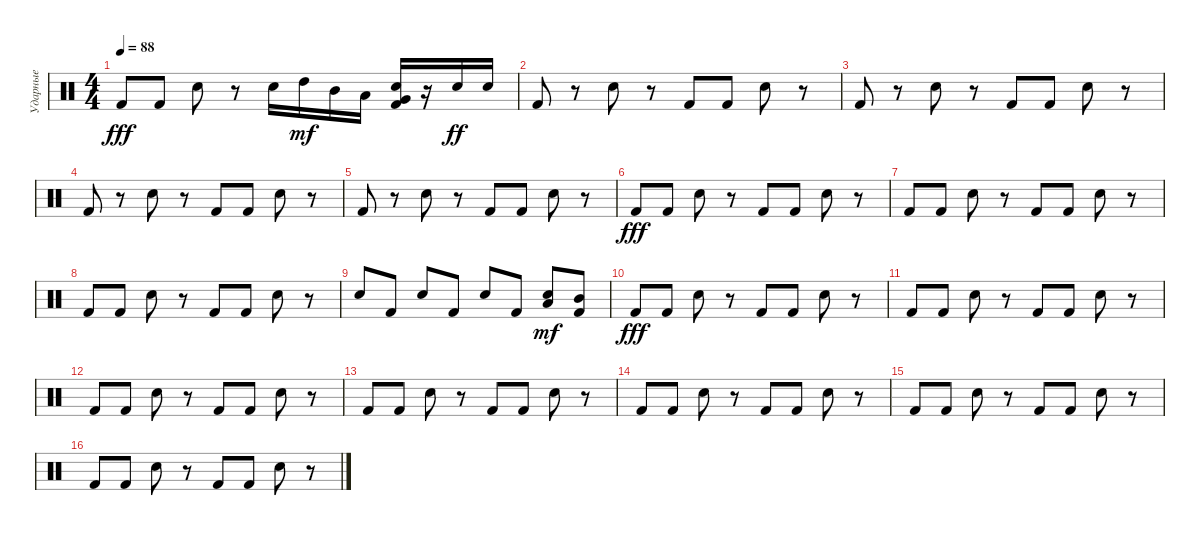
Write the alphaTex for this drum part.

\track ("Ударные" "Ударные") {instrument percussion}
\staff {score}
\articulation defaults
\ts (4 4)
\tempo 88
\clef neutral
\ks c "Kick (hit) 2".8{dy fff} "Kick (hit) 2".8 "Electric Snare (hit)".8
r.8 "Electric Snare (hit)".16 "High Tom (hit)".16{dy mf} "Mid Tom (hit)".16 "Low Tom (hit)".16 ("Very Low Tom (hit)" "Electric Snare (hit)" "Kick (hit) 2").16 r.16 "Electric Snare (hit)".16{dy ff} "Electric Snare (hit)".16 |
"Kick (hit) 2".8 r.8 "Electric Snare (hit)".8 r.8 "Kick (hit) 2".8 "Kick (hit) 2".8 "Electric Snare (hit)".8 r.8 |
"Kick (hit) 2".8 r.8 "Electric Snare (hit)".8 r.8 "Kick (hit) 2".8 "Kick (hit) 2".8 "Electric Snare (hit)".8 r.8 |
"Kick (hit) 2".8 r.8 "Electric Snare (hit)".8 r.8 "Kick (hit) 2".8 "Kick (hit) 2".8 "Electric Snare (hit)".8 r.8 |
"Kick (hit) 2".8 r.8 "Electric Snare (hit)".8 r.8 "Kick (hit) 2".8 "Kick (hit) 2".8 "Electric Snare (hit)".8 r.8 |
"Kick (hit) 2".8{dy fff} "Kick (hit) 2".8 "Electric Snare (hit)".8 r.8 "Kick (hit) 2".8 "Kick (hit) 2".8 "Electric Snare (hit)".8 r.8 |
"Kick (hit) 2".8 "Kick (hit) 2".8 "Electric Snare (hit)".8 r.8 "Kick (hit) 2".8 "Kick (hit) 2".8 "Electric Snare (hit)".8 r.8 |
"Kick (hit) 2".8 "Kick (hit) 2".8 "Electric Snare (hit)".8 r.8 "Kick (hit) 2".8 "Kick (hit) 2".8 "Electric Snare (hit)".8 r.8 |
"Electric Snare (hit)".8 "Kick (hit) 2".8 "Electric Snare (hit)".8 "Kick (hit) 2".8 "Electric Snare (hit)".8 "Kick (hit) 2".8 ("Electric Snare (hit)" "Low Tom (hit)").8{dy mf} ("Kick (hit) 2" "Mid Tom (hit)").8 |
"Kick (hit) 2".8{dy fff} "Kick (hit) 2".8 "Electric Snare (hit)".8 r.8 "Kick (hit) 2".8 "Kick (hit) 2".8 "Electric Snare (hit)".8 r.8 |
"Kick (hit) 2".8 "Kick (hit) 2".8 "Electric Snare (hit)".8 r.8 "Kick (hit) 2".8 "Kick (hit) 2".8 "Electric Snare (hit)".8 r.8 |
"Kick (hit) 2".8 "Kick (hit) 2".8 "Electric Snare (hit)".8 r.8 "Kick (hit) 2".8 "Kick (hit) 2".8 "Electric Snare (hit)".8 r.8 |
"Kick (hit) 2".8 "Kick (hit) 2".8 "Electric Snare (hit)".8 r.8 "Kick (hit) 2".8 "Kick (hit) 2".8 "Electric Snare (hit)".8 r.8 |
"Kick (hit) 2".8 "Kick (hit) 2".8 "Electric Snare (hit)".8 r.8 "Kick (hit) 2".8 "Kick (hit) 2".8 "Electric Snare (hit)".8 r.8 |
"Kick (hit) 2".8 "Kick (hit) 2".8 "Electric Snare (hit)".8 r.8 "Kick (hit) 2".8 "Kick (hit) 2".8 "Electric Snare (hit)".8 r.8 |
"Kick (hit) 2".8 "Kick (hit) 2".8 "Electric Snare (hit)".8 r.8 "Kick (hit) 2".8 "Kick (hit) 2".8 "Electric Snare (hit)".8 r.8
